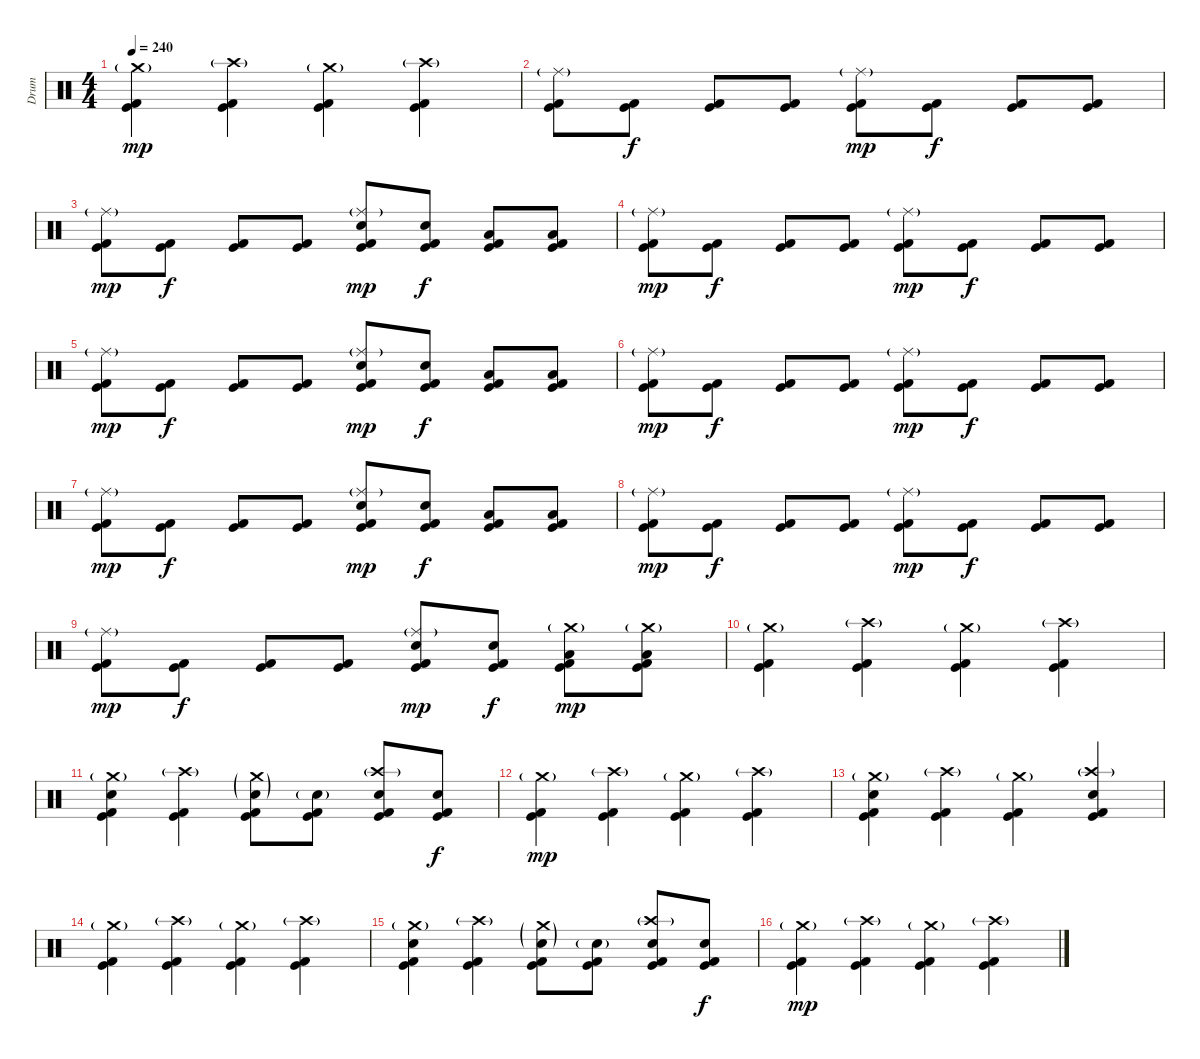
\track ("Drum" "Drum") {instrument percussion}
\staff {score}
\articulation defaults
\ts (4 4)
\tempo 240
\clef neutral
\ks c
("Crash medium (hit)"{g} "Kick (hit)" "Kick (hit) 2").4{dy mp} ("Crash high (hit)"{g} "Kick (hit)" "Kick (hit) 2").4 ("Crash medium (hit)"{g} "Kick (hit)" "Kick (hit) 2").4 ("Crash high (hit)"{g} "Kick (hit)" "Kick (hit) 2").4 |
("Ride (middle)"{g} "Kick (hit)" "Kick (hit) 2").8 ("Kick (hit)" "Kick (hit) 2").8{dy f} ("Kick (hit)" "Kick (hit) 2").8 ("Kick (hit)" "Kick (hit) 2").8 ("Ride (middle)"{g} "Kick (hit)" "Kick (hit) 2").8{dy mp} ("Kick (hit)" "Kick (hit) 2").8{dy f} ("Kick (hit)" "Kick (hit) 2").8 ("Kick (hit)" "Kick (hit) 2").8 |
("Ride (middle)"{g} "Kick (hit)" "Kick (hit) 2").8{dy mp} ("Kick (hit)" "Kick (hit) 2").8{dy f} ("Kick (hit)" "Kick (hit) 2").8 ("Kick (hit)" "Kick (hit) 2").8 ("Ride (middle)"{g} "Electric Snare (hit)" "Kick (hit)" "Kick (hit) 2").8{dy mp} ("Electric Snare (hit)" "Kick (hit)" "Kick (hit) 2").8{dy f} ("Low Tom (hit)" "Kick (hit)" "Kick (hit) 2").8 ("Low Tom (hit)" "Kick (hit)" "Kick (hit) 2").8 |
("Ride (middle)"{g} "Kick (hit)" "Kick (hit) 2").8{dy mp} ("Kick (hit)" "Kick (hit) 2").8{dy f} ("Kick (hit)" "Kick (hit) 2").8 ("Kick (hit)" "Kick (hit) 2").8 ("Ride (middle)"{g} "Kick (hit)" "Kick (hit) 2").8{dy mp} ("Kick (hit)" "Kick (hit) 2").8{dy f} ("Kick (hit)" "Kick (hit) 2").8 ("Kick (hit)" "Kick (hit) 2").8 |
("Ride (middle)"{g} "Kick (hit)" "Kick (hit) 2").8{dy mp} ("Kick (hit)" "Kick (hit) 2").8{dy f} ("Kick (hit)" "Kick (hit) 2").8 ("Kick (hit)" "Kick (hit) 2").8 ("Ride (middle)"{g} "Electric Snare (hit)" "Kick (hit)" "Kick (hit) 2").8{dy mp} ("Electric Snare (hit)" "Kick (hit)" "Kick (hit) 2").8{dy f} ("Low Tom (hit)" "Kick (hit)" "Kick (hit) 2").8 ("Low Tom (hit)" "Kick (hit)" "Kick (hit) 2").8 |
("Ride (middle)"{g} "Kick (hit)" "Kick (hit) 2").8{dy mp} ("Kick (hit)" "Kick (hit) 2").8{dy f} ("Kick (hit)" "Kick (hit) 2").8 ("Kick (hit)" "Kick (hit) 2").8 ("Ride (middle)"{g} "Kick (hit)" "Kick (hit) 2").8{dy mp} ("Kick (hit)" "Kick (hit) 2").8{dy f} ("Kick (hit)" "Kick (hit) 2").8 ("Kick (hit)" "Kick (hit) 2").8 |
("Ride (middle)"{g} "Kick (hit)" "Kick (hit) 2").8{dy mp} ("Kick (hit)" "Kick (hit) 2").8{dy f} ("Kick (hit)" "Kick (hit) 2").8 ("Kick (hit)" "Kick (hit) 2").8 ("Ride (middle)"{g} "Electric Snare (hit)" "Kick (hit)" "Kick (hit) 2").8{dy mp} ("Electric Snare (hit)" "Kick (hit)" "Kick (hit) 2").8{dy f} ("Low Tom (hit)" "Kick (hit)" "Kick (hit) 2").8 ("Low Tom (hit)" "Kick (hit)" "Kick (hit) 2").8 |
("Ride (middle)"{g} "Kick (hit)" "Kick (hit) 2").8{dy mp} ("Kick (hit)" "Kick (hit) 2").8{dy f} ("Kick (hit)" "Kick (hit) 2").8 ("Kick (hit)" "Kick (hit) 2").8 ("Ride (middle)"{g} "Kick (hit)" "Kick (hit) 2").8{dy mp} ("Kick (hit)" "Kick (hit) 2").8{dy f} ("Kick (hit)" "Kick (hit) 2").8 ("Kick (hit)" "Kick (hit) 2").8 |
("Ride (middle)"{g} "Kick (hit)" "Kick (hit) 2").8{dy mp} ("Kick (hit)" "Kick (hit) 2").8{dy f} ("Kick (hit)" "Kick (hit) 2").8 ("Kick (hit)" "Kick (hit) 2").8 ("Ride (middle)"{g} "Electric Snare (hit)" "Kick (hit)" "Kick (hit) 2").8{dy mp} ("Electric Snare (hit)" "Kick (hit)" "Kick (hit) 2").8{dy f} ("Crash medium (hit)"{g} "Low Tom (hit)" "Kick (hit)" "Kick (hit) 2").8{dy mp} ("Crash medium (hit)"{g} "Low Tom (hit)" "Kick (hit)" "Kick (hit) 2").8 |
("Crash medium (hit)"{g} "Kick (hit)" "Kick (hit) 2").4 ("Crash high (hit)"{g} "Kick (hit)" "Kick (hit) 2").4 ("Crash medium (hit)"{g} "Kick (hit)" "Kick (hit) 2").4 ("Crash high (hit)"{g} "Kick (hit)" "Kick (hit) 2").4 |
("Crash medium (hit)"{g} "Electric Snare (hit)" "Kick (hit)" "Kick (hit) 2").4 ("Crash high (hit)"{g} "Kick (hit)" "Kick (hit) 2").4 ("Crash medium (hit)"{g} "Electric Snare (hit)"{g} "Kick (hit)" "Kick (hit) 2").8 ("Electric Snare (hit)"{g} "Kick (hit)" "Kick (hit) 2").8 ("Crash high (hit)"{g} "Electric Snare (hit)" "Kick (hit)" "Kick (hit) 2").8 ("Electric Snare (hit)" "Kick (hit)" "Kick (hit) 2").8{dy f} |
("Crash medium (hit)"{g} "Kick (hit)" "Kick (hit) 2").4{dy mp} ("Crash high (hit)"{g} "Kick (hit)" "Kick (hit) 2").4 ("Crash medium (hit)"{g} "Kick (hit)" "Kick (hit) 2").4 ("Crash high (hit)"{g} "Kick (hit)" "Kick (hit) 2").4 |
("Crash medium (hit)"{g} "Electric Snare (hit)" "Kick (hit)" "Kick (hit) 2").4 ("Crash high (hit)"{g} "Kick (hit)" "Kick (hit) 2").4 ("Crash medium (hit)"{g} "Kick (hit)" "Kick (hit) 2").4 ("Crash high (hit)"{g} "Electric Snare (hit)" "Kick (hit)" "Kick (hit) 2").4 |
("Crash medium (hit)"{g} "Kick (hit)" "Kick (hit) 2").4 ("Crash high (hit)"{g} "Kick (hit)" "Kick (hit) 2").4 ("Crash medium (hit)"{g} "Kick (hit)" "Kick (hit) 2").4 ("Crash high (hit)"{g} "Kick (hit)" "Kick (hit) 2").4 |
("Crash medium (hit)"{g} "Electric Snare (hit)" "Kick (hit)" "Kick (hit) 2").4 ("Crash high (hit)"{g} "Kick (hit)" "Kick (hit) 2").4 ("Crash medium (hit)"{g} "Electric Snare (hit)"{g} "Kick (hit)" "Kick (hit) 2").8 ("Electric Snare (hit)"{g} "Kick (hit)" "Kick (hit) 2").8 ("Crash high (hit)"{g} "Electric Snare (hit)" "Kick (hit)" "Kick (hit) 2").8 ("Electric Snare (hit)" "Kick (hit)" "Kick (hit) 2").8{dy f} |
("Crash medium (hit)"{g} "Kick (hit)" "Kick (hit) 2").4{dy mp} ("Crash high (hit)"{g} "Kick (hit)" "Kick (hit) 2").4 ("Crash medium (hit)"{g} "Kick (hit)" "Kick (hit) 2").4 ("Crash high (hit)"{g} "Kick (hit)" "Kick (hit) 2").4
